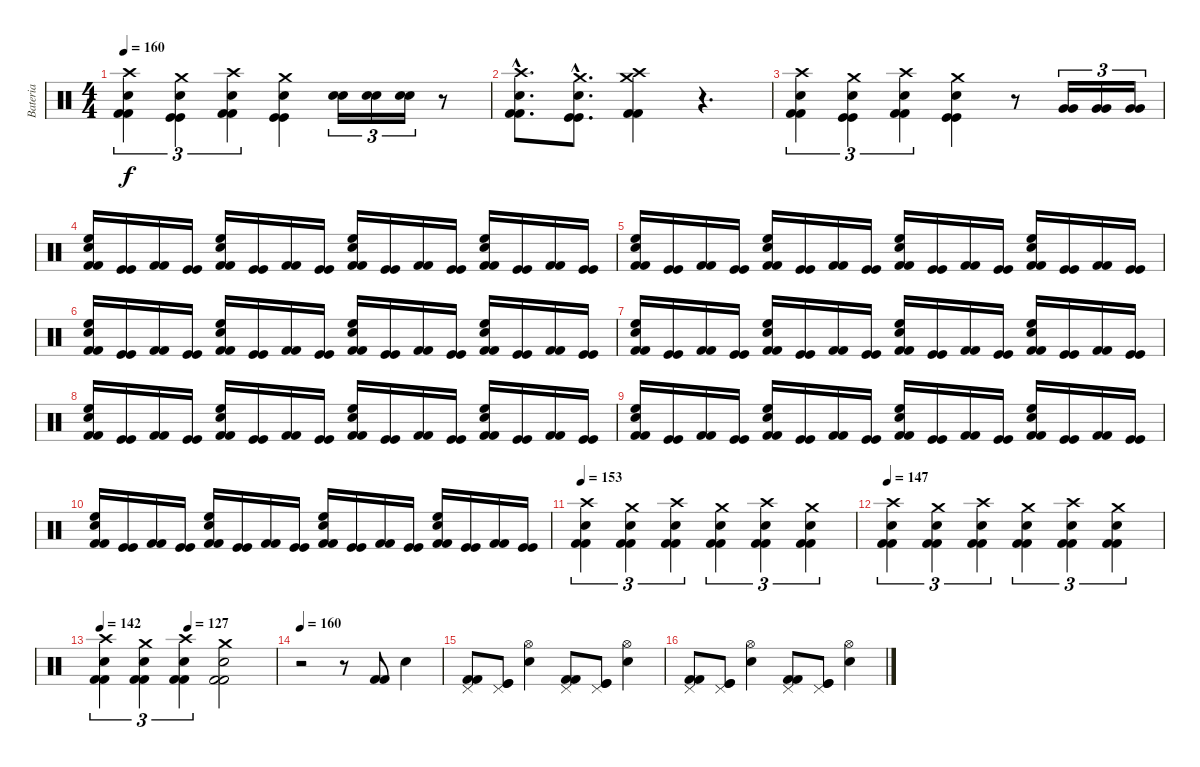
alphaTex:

\track ("Bateria" "Bateria") {instrument percussion}
\staff {score}
\articulation defaults
\ts (4 4)
\tempo 160
\clef neutral
\ks c
("Kick (hit) 2" "Kick (hit) 2" "Snare (hit) 2" "Crash high (hit)").4{tu (3 2) dy f} ("Kick (hit)" "Kick (hit)" "Snare (hit) 2" "Crash medium (hit)").4{tu (3 2)} ("Kick (hit) 2" "Kick (hit) 2" "Snare (hit) 2" "Crash high (hit)").4{tu (3 2)} ("Kick (hit)" "Kick (hit)" "Snare (hit) 2" "Crash medium (hit)").4 ("Snare (hit) 2" "Snare (hit) 2").16{tu (3 2)} ("Snare (hit) 2" "Snare (hit) 2").16{tu (3 2)} ("Snare (hit) 2" "Snare (hit) 2").16{tu (3 2)} r.8 |
("Kick (hit) 2"{hac} "Kick (hit) 2"{hac} "Snare (hit) 2"{hac} "Crash high (hit)"{hac}).8{d} ("Kick (hit)"{hac} "Kick (hit)"{hac} "Snare (hit) 2"{hac} "Crash medium (hit)"{hac}).8{d} ("Kick (hit) 2" "Kick (hit) 2" "Crash medium (hit)" "Crash high (hit)").4 r.4{d} |
("Kick (hit) 2" "Kick (hit) 2" "Snare (hit) 2" "Crash high (hit)").4{tu (3 2)} ("Kick (hit)" "Kick (hit)" "Snare (hit) 2" "Crash medium (hit)").4{tu (3 2)} ("Kick (hit) 2" "Kick (hit) 2" "Snare (hit) 2" "Crash high (hit)").4{tu (3 2)} ("Kick (hit)" "Kick (hit)" "Snare (hit) 2" "Crash medium (hit)").4 r.8 ("Very Low Tom (hit)" "Very Low Tom (hit)").16{tu (3 2)} ("Very Low Tom (hit)" "Very Low Tom (hit)").16{tu (3 2)} ("Very Low Tom (hit)" "Very Low Tom (hit)").16{tu (3 2)} |
("Kick (hit) 2" "Kick (hit) 2" "Snare (hit) 2" "High Floor Tom (hit)").16 ("Kick (hit)" "Kick (hit)").16 ("Kick (hit) 2" "Kick (hit) 2").16 ("Kick (hit)" "Kick (hit)").16 ("Kick (hit) 2" "Kick (hit) 2" "Snare (hit) 2" "High Floor Tom (hit)").16 ("Kick (hit)" "Kick (hit)").16 ("Kick (hit) 2" "Kick (hit) 2").16 ("Kick (hit)" "Kick (hit)").16 ("Kick (hit) 2" "Kick (hit) 2" "Snare (hit) 2" "High Floor Tom (hit)").16 ("Kick (hit)" "Kick (hit)").16 ("Kick (hit) 2" "Kick (hit) 2").16 ("Kick (hit)" "Kick (hit)").16 ("Kick (hit) 2" "Kick (hit) 2" "Snare (hit) 2" "High Floor Tom (hit)").16 ("Kick (hit)" "Kick (hit)").16 ("Kick (hit) 2" "Kick (hit) 2").16 ("Kick (hit)" "Kick (hit)").16 |
("Kick (hit) 2" "Kick (hit) 2" "Snare (hit) 2" "High Floor Tom (hit)").16 ("Kick (hit)" "Kick (hit)").16 ("Kick (hit) 2" "Kick (hit) 2").16 ("Kick (hit)" "Kick (hit)").16 ("Kick (hit) 2" "Kick (hit) 2" "Snare (hit) 2" "High Floor Tom (hit)").16 ("Kick (hit)" "Kick (hit)").16 ("Kick (hit) 2" "Kick (hit) 2").16 ("Kick (hit)" "Kick (hit)").16 ("Kick (hit) 2" "Kick (hit) 2" "Snare (hit) 2" "High Floor Tom (hit)").16 ("Kick (hit)" "Kick (hit)").16 ("Kick (hit) 2" "Kick (hit) 2").16 ("Kick (hit)" "Kick (hit)").16 ("Kick (hit) 2" "Kick (hit) 2" "Snare (hit) 2" "High Floor Tom (hit)").16 ("Kick (hit)" "Kick (hit)").16 ("Kick (hit) 2" "Kick (hit) 2").16 ("Kick (hit)" "Kick (hit)").16 |
("Kick (hit) 2" "Kick (hit) 2" "Snare (hit) 2" "High Floor Tom (hit)").16 ("Kick (hit)" "Kick (hit)").16 ("Kick (hit) 2" "Kick (hit) 2").16 ("Kick (hit)" "Kick (hit)").16 ("Kick (hit) 2" "Kick (hit) 2" "Snare (hit) 2" "High Floor Tom (hit)").16 ("Kick (hit)" "Kick (hit)").16 ("Kick (hit) 2" "Kick (hit) 2").16 ("Kick (hit)" "Kick (hit)").16 ("Kick (hit) 2" "Kick (hit) 2" "Snare (hit) 2" "High Floor Tom (hit)").16 ("Kick (hit)" "Kick (hit)").16 ("Kick (hit) 2" "Kick (hit) 2").16 ("Kick (hit)" "Kick (hit)").16 ("Kick (hit) 2" "Kick (hit) 2" "Snare (hit) 2" "High Floor Tom (hit)").16 ("Kick (hit)" "Kick (hit)").16 ("Kick (hit) 2" "Kick (hit) 2").16 ("Kick (hit)" "Kick (hit)").16 |
("Kick (hit) 2" "Kick (hit) 2" "Snare (hit) 2" "High Floor Tom (hit)").16 ("Kick (hit)" "Kick (hit)").16 ("Kick (hit) 2" "Kick (hit) 2").16 ("Kick (hit)" "Kick (hit)").16 ("Kick (hit) 2" "Kick (hit) 2" "Snare (hit) 2" "High Floor Tom (hit)").16 ("Kick (hit)" "Kick (hit)").16 ("Kick (hit) 2" "Kick (hit) 2").16 ("Kick (hit)" "Kick (hit)").16 ("Kick (hit) 2" "Kick (hit) 2" "Snare (hit) 2" "High Floor Tom (hit)").16 ("Kick (hit)" "Kick (hit)").16 ("Kick (hit) 2" "Kick (hit) 2").16 ("Kick (hit)" "Kick (hit)").16 ("Kick (hit) 2" "Kick (hit) 2" "Snare (hit) 2" "High Floor Tom (hit)").16 ("Kick (hit)" "Kick (hit)").16 ("Kick (hit) 2" "Kick (hit) 2").16 ("Kick (hit)" "Kick (hit)").16 |
("Kick (hit) 2" "Kick (hit) 2" "Snare (hit) 2" "High Floor Tom (hit)").16 ("Kick (hit)" "Kick (hit)").16 ("Kick (hit) 2" "Kick (hit) 2").16 ("Kick (hit)" "Kick (hit)").16 ("Kick (hit) 2" "Kick (hit) 2" "Snare (hit) 2" "High Floor Tom (hit)").16 ("Kick (hit)" "Kick (hit)").16 ("Kick (hit) 2" "Kick (hit) 2").16 ("Kick (hit)" "Kick (hit)").16 ("Kick (hit) 2" "Kick (hit) 2" "Snare (hit) 2" "High Floor Tom (hit)").16 ("Kick (hit)" "Kick (hit)").16 ("Kick (hit) 2" "Kick (hit) 2").16 ("Kick (hit)" "Kick (hit)").16 ("Kick (hit) 2" "Kick (hit) 2" "Snare (hit) 2" "High Floor Tom (hit)").16 ("Kick (hit)" "Kick (hit)").16 ("Kick (hit) 2" "Kick (hit) 2").16 ("Kick (hit)" "Kick (hit)").16 |
("Kick (hit) 2" "Kick (hit) 2" "Snare (hit) 2" "High Floor Tom (hit)").16 ("Kick (hit)" "Kick (hit)").16 ("Kick (hit) 2" "Kick (hit) 2").16 ("Kick (hit)" "Kick (hit)").16 ("Kick (hit) 2" "Kick (hit) 2" "Snare (hit) 2" "High Floor Tom (hit)").16 ("Kick (hit)" "Kick (hit)").16 ("Kick (hit) 2" "Kick (hit) 2").16 ("Kick (hit)" "Kick (hit)").16 ("Kick (hit) 2" "Kick (hit) 2" "Snare (hit) 2" "High Floor Tom (hit)").16 ("Kick (hit)" "Kick (hit)").16 ("Kick (hit) 2" "Kick (hit) 2").16 ("Kick (hit)" "Kick (hit)").16 ("Kick (hit) 2" "Kick (hit) 2" "Snare (hit) 2" "High Floor Tom (hit)").16 ("Kick (hit)" "Kick (hit)").16 ("Kick (hit) 2" "Kick (hit) 2").16 ("Kick (hit)" "Kick (hit)").16 |
("Kick (hit) 2" "Kick (hit) 2" "Snare (hit) 2" "High Floor Tom (hit)").16 ("Kick (hit)" "Kick (hit)").16 ("Kick (hit) 2" "Kick (hit) 2").16 ("Kick (hit)" "Kick (hit)").16 ("Kick (hit) 2" "Kick (hit) 2" "Snare (hit) 2" "High Floor Tom (hit)").16 ("Kick (hit)" "Kick (hit)").16 ("Kick (hit) 2" "Kick (hit) 2").16 ("Kick (hit)" "Kick (hit)").16 ("Kick (hit) 2" "Kick (hit) 2" "Snare (hit) 2" "High Floor Tom (hit)").16 ("Kick (hit)" "Kick (hit)").16 ("Kick (hit) 2" "Kick (hit) 2").16 ("Kick (hit)" "Kick (hit)").16 ("Kick (hit) 2" "Kick (hit) 2" "Snare (hit) 2" "High Floor Tom (hit)").16 ("Kick (hit)" "Kick (hit)").16 ("Kick (hit) 2" "Kick (hit) 2").16 ("Kick (hit)" "Kick (hit)").16 |
\tempo 153
("Kick (hit) 2" "Kick (hit) 2" "Snare (hit) 2" "Crash high (hit)").4{tu (3 2)} ("Kick (hit) 2" "Kick (hit) 2" "Snare (hit) 2" "Crash medium (hit)").4{tu (3 2)} ("Kick (hit) 2" "Kick (hit) 2" "Snare (hit) 2" "Crash high (hit)").4{tu (3 2)} ("Kick (hit) 2" "Kick (hit) 2" "Snare (hit) 2" "Crash medium (hit)").4{tu (3 2)} ("Kick (hit) 2" "Kick (hit) 2" "Snare (hit) 2" "Crash high (hit)").4{tu (3 2)} ("Kick (hit) 2" "Kick (hit) 2" "Snare (hit) 2" "Crash medium (hit)").4{tu (3 2)} |
\tempo 147
("Kick (hit) 2" "Kick (hit) 2" "Snare (hit) 2" "Crash high (hit)").4{tu (3 2)} ("Kick (hit) 2" "Kick (hit) 2" "Snare (hit) 2" "Crash medium (hit)").4{tu (3 2)} ("Kick (hit) 2" "Kick (hit) 2" "Snare (hit) 2" "Crash high (hit)").4{tu (3 2)} ("Kick (hit) 2" "Kick (hit) 2" "Snare (hit) 2" "Crash medium (hit)").4{tu (3 2)} ("Kick (hit) 2" "Kick (hit) 2" "Snare (hit) 2" "Crash high (hit)").4{tu (3 2)} ("Kick (hit) 2" "Kick (hit) 2" "Snare (hit) 2" "Crash medium (hit)").4{tu (3 2)} |
\tempo 142
\tempo (127 0.5)
("Kick (hit) 2" "Kick (hit) 2" "Snare (hit) 2" "Crash high (hit)").4{tu (3 2)} ("Kick (hit) 2" "Kick (hit) 2" "Snare (hit) 2" "Crash medium (hit)").4{tu (3 2)} ("Kick (hit) 2" "Kick (hit) 2" "Snare (hit) 2" "Crash high (hit)").4{tu (3 2)} ("Kick (hit) 2" "Kick (hit) 2" "Snare (hit) 2" "Crash medium (hit)").2 |
\tempo 160
r.2 r.8 ("Kick (hit) 2" "Kick (hit) 2").8 "Snare (hit) 2".4 |
("Kick (hit) 2" "Kick (hit) 2" "Pedal Hi-Hat (hit)").8 ("Kick (hit)" "Kick (hit)" "Pedal Hi-Hat (hit)").8 ("Snare (hit) 2" "Hi-Hat (open)").4 ("Kick (hit) 2" "Kick (hit) 2" "Pedal Hi-Hat (hit)").8 ("Kick (hit)" "Kick (hit)" "Pedal Hi-Hat (hit)").8 ("Snare (hit) 2" "Hi-Hat (open)").4 |
("Kick (hit) 2" "Kick (hit) 2" "Pedal Hi-Hat (hit)").8 ("Kick (hit)" "Kick (hit)" "Pedal Hi-Hat (hit)").8 ("Snare (hit) 2" "Hi-Hat (open)").4 ("Kick (hit) 2" "Kick (hit) 2" "Pedal Hi-Hat (hit)").8 ("Kick (hit)" "Kick (hit)" "Pedal Hi-Hat (hit)").8 ("Snare (hit) 2" "Hi-Hat (open)").4
